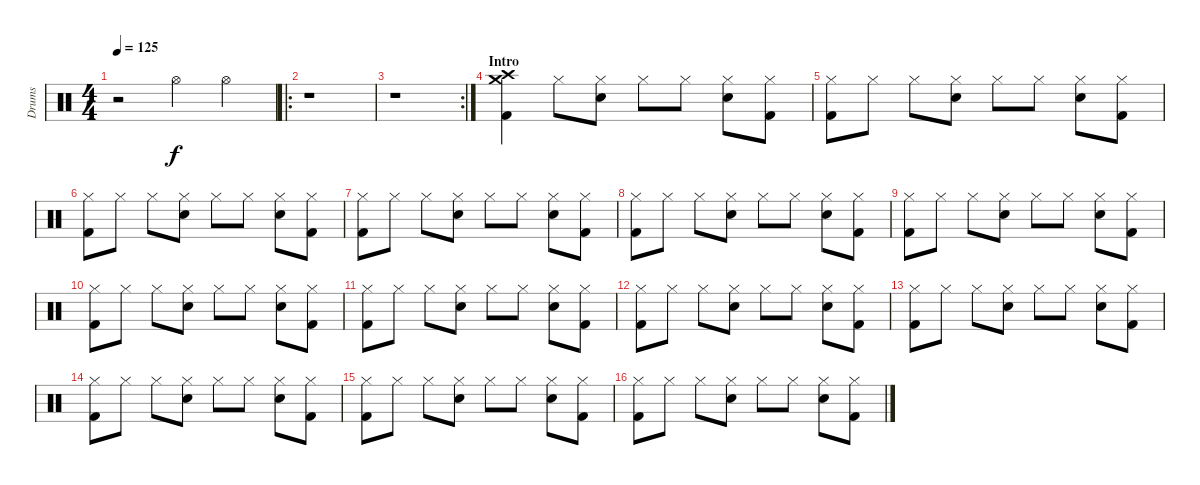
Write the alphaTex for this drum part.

\track ("Drums" "Drums") {instrument percussion}
\staff {score}
\articulation defaults
\ts (4 4)
\tempo 125
\clef neutral
\ks c
r.2{dy f} "Hi-Hat (open)".4 "Hi-Hat (open)".4 |
\ro
r.1 |
\rc 2
r.1 |
\section ("" "Intro")
("Crash high (hit)" "Crash medium (hit)" "Kick (hit) 2").4 "Hi-Hat (closed)".8 ("Hi-Hat (closed)" "Snare (hit) 2").8 "Hi-Hat (closed)".8 "Hi-Hat (closed)".8 ("Hi-Hat (closed)" "Snare (hit) 2").8 ("Hi-Hat (closed)" "Kick (hit) 2").8 |
("Hi-Hat (closed)" "Kick (hit) 2").8 "Hi-Hat (closed)".8 "Hi-Hat (closed)".8 ("Hi-Hat (closed)" "Snare (hit) 2").8 "Hi-Hat (closed)".8 "Hi-Hat (closed)".8 ("Hi-Hat (closed)" "Snare (hit) 2").8 ("Hi-Hat (closed)" "Kick (hit) 2").8 |
("Hi-Hat (closed)" "Kick (hit) 2").8 "Hi-Hat (closed)".8 "Hi-Hat (closed)".8 ("Hi-Hat (closed)" "Snare (hit) 2").8 "Hi-Hat (closed)".8 "Hi-Hat (closed)".8 ("Hi-Hat (closed)" "Snare (hit) 2").8 ("Hi-Hat (closed)" "Kick (hit) 2").8 |
("Hi-Hat (closed)" "Kick (hit) 2").8 "Hi-Hat (closed)".8 "Hi-Hat (closed)".8 ("Hi-Hat (closed)" "Snare (hit) 2").8 "Hi-Hat (closed)".8 "Hi-Hat (closed)".8 ("Hi-Hat (closed)" "Snare (hit) 2").8 ("Hi-Hat (closed)" "Kick (hit) 2").8 |
("Hi-Hat (closed)" "Kick (hit) 2").8 "Hi-Hat (closed)".8 "Hi-Hat (closed)".8 ("Hi-Hat (closed)" "Snare (hit) 2").8 "Hi-Hat (closed)".8 "Hi-Hat (closed)".8 ("Hi-Hat (closed)" "Snare (hit) 2").8 ("Hi-Hat (closed)" "Kick (hit) 2").8 |
("Hi-Hat (closed)" "Kick (hit) 2").8 "Hi-Hat (closed)".8 "Hi-Hat (closed)".8 ("Hi-Hat (closed)" "Snare (hit) 2").8 "Hi-Hat (closed)".8 "Hi-Hat (closed)".8 ("Hi-Hat (closed)" "Snare (hit) 2").8 ("Hi-Hat (closed)" "Kick (hit) 2").8 |
("Hi-Hat (closed)" "Kick (hit) 2").8 "Hi-Hat (closed)".8 "Hi-Hat (closed)".8 ("Hi-Hat (closed)" "Snare (hit) 2").8 "Hi-Hat (closed)".8 "Hi-Hat (closed)".8 ("Hi-Hat (closed)" "Snare (hit) 2").8 ("Hi-Hat (closed)" "Kick (hit) 2").8 |
("Hi-Hat (closed)" "Kick (hit) 2").8 "Hi-Hat (closed)".8 "Hi-Hat (closed)".8 ("Hi-Hat (closed)" "Snare (hit) 2").8 "Hi-Hat (closed)".8 "Hi-Hat (closed)".8 ("Hi-Hat (closed)" "Snare (hit) 2").8 ("Hi-Hat (closed)" "Kick (hit) 2").8 |
("Hi-Hat (closed)" "Kick (hit) 2").8 "Hi-Hat (closed)".8 "Hi-Hat (closed)".8 ("Hi-Hat (closed)" "Snare (hit) 2").8 "Hi-Hat (closed)".8 "Hi-Hat (closed)".8 ("Hi-Hat (closed)" "Snare (hit) 2").8 ("Hi-Hat (closed)" "Kick (hit) 2").8 |
("Hi-Hat (closed)" "Kick (hit) 2").8 "Hi-Hat (closed)".8 "Hi-Hat (closed)".8 ("Hi-Hat (closed)" "Snare (hit) 2").8 "Hi-Hat (closed)".8 "Hi-Hat (closed)".8 ("Hi-Hat (closed)" "Snare (hit) 2").8 ("Hi-Hat (closed)" "Kick (hit) 2").8 |
("Hi-Hat (closed)" "Kick (hit) 2").8 "Hi-Hat (closed)".8 "Hi-Hat (closed)".8 ("Hi-Hat (closed)" "Snare (hit) 2").8 "Hi-Hat (closed)".8 "Hi-Hat (closed)".8 ("Hi-Hat (closed)" "Snare (hit) 2").8 ("Hi-Hat (closed)" "Kick (hit) 2").8 |
("Hi-Hat (closed)" "Kick (hit) 2").8 "Hi-Hat (closed)".8 "Hi-Hat (closed)".8 ("Hi-Hat (closed)" "Snare (hit) 2").8 "Hi-Hat (closed)".8 "Hi-Hat (closed)".8 ("Hi-Hat (closed)" "Snare (hit) 2").8 ("Hi-Hat (closed)" "Kick (hit) 2").8 |
("Hi-Hat (closed)" "Kick (hit) 2").8 "Hi-Hat (closed)".8 "Hi-Hat (closed)".8 ("Hi-Hat (closed)" "Snare (hit) 2").8 "Hi-Hat (closed)".8 "Hi-Hat (closed)".8 ("Hi-Hat (closed)" "Snare (hit) 2").8 ("Hi-Hat (closed)" "Kick (hit) 2").8
